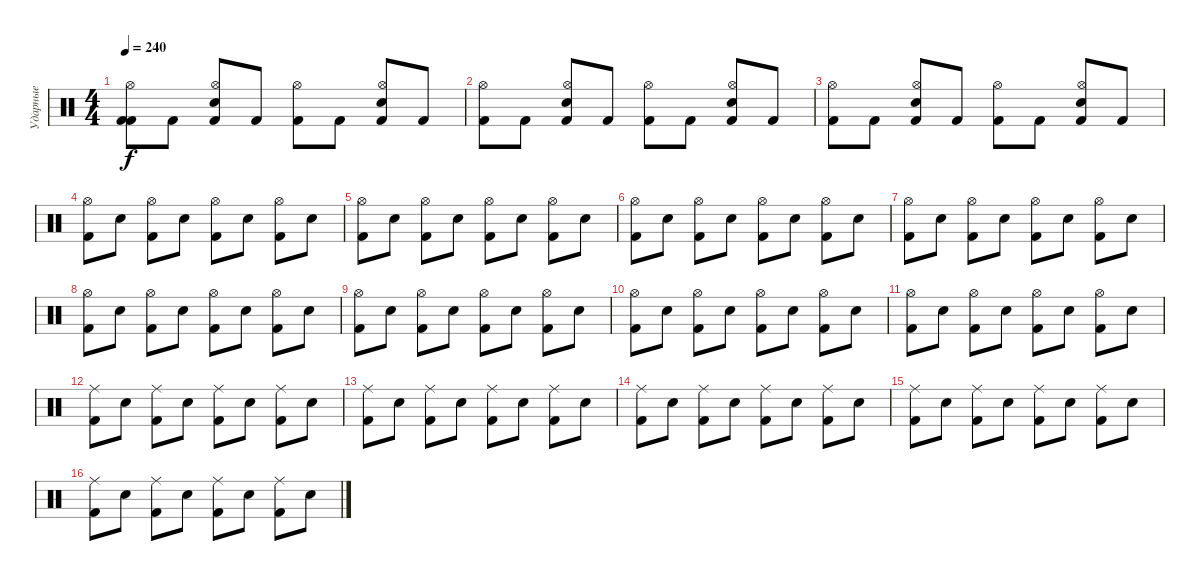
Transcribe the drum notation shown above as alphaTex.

\track ("Ударные" "Ударные") {instrument percussion}
\staff {score}
\articulation defaults
\ts (4 4)
\tempo 240
\clef neutral
\ks c
("Kick (hit) 2" "Hi-Hat (open)" "Kick (hit) 2").8{dy f} "Kick (hit) 2".8 ("Electric Snare (hit)" "Hi-Hat (open)" "Kick (hit) 2").8 "Kick (hit) 2".8 ("Kick (hit) 2" "Hi-Hat (open)").8 "Kick (hit) 2".8 ("Electric Snare (hit)" "Hi-Hat (open)" "Kick (hit) 2").8 "Kick (hit) 2".8 |
("Kick (hit) 2" "Hi-Hat (open)").8 "Kick (hit) 2".8 ("Electric Snare (hit)" "Hi-Hat (open)" "Kick (hit) 2").8 "Kick (hit) 2".8 ("Kick (hit) 2" "Hi-Hat (open)").8 "Kick (hit) 2".8 ("Electric Snare (hit)" "Hi-Hat (open)" "Kick (hit) 2").8 "Kick (hit) 2".8 |
("Kick (hit) 2" "Hi-Hat (open)").8 "Kick (hit) 2".8 ("Electric Snare (hit)" "Hi-Hat (open)" "Kick (hit) 2").8 "Kick (hit) 2".8 ("Kick (hit) 2" "Hi-Hat (open)").8 "Kick (hit) 2".8 ("Electric Snare (hit)" "Hi-Hat (open)" "Kick (hit) 2").8 "Kick (hit) 2".8 |
("Kick (hit) 2" "Hi-Hat (open)").8 "Electric Snare (hit)".8 ("Kick (hit) 2" "Hi-Hat (open)").8 "Electric Snare (hit)".8 ("Kick (hit) 2" "Hi-Hat (open)").8 "Electric Snare (hit)".8 ("Kick (hit) 2" "Hi-Hat (open)").8 "Electric Snare (hit)".8 |
("Kick (hit) 2" "Hi-Hat (open)").8 "Electric Snare (hit)".8 ("Kick (hit) 2" "Hi-Hat (open)").8 "Electric Snare (hit)".8 ("Kick (hit) 2" "Hi-Hat (open)").8 "Electric Snare (hit)".8 ("Kick (hit) 2" "Hi-Hat (open)").8 "Electric Snare (hit)".8 |
("Kick (hit) 2" "Hi-Hat (open)").8 "Electric Snare (hit)".8 ("Kick (hit) 2" "Hi-Hat (open)").8 "Electric Snare (hit)".8 ("Kick (hit) 2" "Hi-Hat (open)").8 "Electric Snare (hit)".8 ("Kick (hit) 2" "Hi-Hat (open)").8 "Electric Snare (hit)".8 |
("Kick (hit) 2" "Hi-Hat (open)").8 "Electric Snare (hit)".8 ("Kick (hit) 2" "Hi-Hat (open)").8 "Electric Snare (hit)".8 ("Kick (hit) 2" "Hi-Hat (open)").8 "Electric Snare (hit)".8 ("Kick (hit) 2" "Hi-Hat (open)").8 "Electric Snare (hit)".8 |
("Kick (hit) 2" "Hi-Hat (open)").8 "Electric Snare (hit)".8 ("Kick (hit) 2" "Hi-Hat (open)").8 "Electric Snare (hit)".8 ("Kick (hit) 2" "Hi-Hat (open)").8 "Electric Snare (hit)".8 ("Kick (hit) 2" "Hi-Hat (open)").8 "Electric Snare (hit)".8 |
("Kick (hit) 2" "Hi-Hat (open)").8 "Electric Snare (hit)".8 ("Kick (hit) 2" "Hi-Hat (open)").8 "Electric Snare (hit)".8 ("Kick (hit) 2" "Hi-Hat (open)").8 "Electric Snare (hit)".8 ("Kick (hit) 2" "Hi-Hat (open)").8 "Electric Snare (hit)".8 |
("Kick (hit) 2" "Hi-Hat (open)").8 "Electric Snare (hit)".8 ("Kick (hit) 2" "Hi-Hat (open)").8 "Electric Snare (hit)".8 ("Kick (hit) 2" "Hi-Hat (open)").8 "Electric Snare (hit)".8 ("Kick (hit) 2" "Hi-Hat (open)").8 "Electric Snare (hit)".8 |
("Kick (hit) 2" "Hi-Hat (open)").8 "Electric Snare (hit)".8 ("Kick (hit) 2" "Hi-Hat (open)").8 "Electric Snare (hit)".8 ("Kick (hit) 2" "Hi-Hat (open)").8 "Electric Snare (hit)".8 ("Kick (hit) 2" "Hi-Hat (open)").8 "Electric Snare (hit)".8 |
("Kick (hit) 2" "Ride (middle)").8 "Electric Snare (hit)".8 ("Kick (hit) 2" "Ride (middle)").8 "Electric Snare (hit)".8 ("Kick (hit) 2" "Ride (middle)").8 "Electric Snare (hit)".8 ("Kick (hit) 2" "Ride (middle)").8 "Electric Snare (hit)".8 |
("Kick (hit) 2" "Ride (middle)").8 "Electric Snare (hit)".8 ("Kick (hit) 2" "Ride (middle)").8 "Electric Snare (hit)".8 ("Kick (hit) 2" "Ride (middle)").8 "Electric Snare (hit)".8 ("Kick (hit) 2" "Ride (middle)").8 "Electric Snare (hit)".8 |
("Kick (hit) 2" "Ride (middle)").8 "Electric Snare (hit)".8 ("Kick (hit) 2" "Ride (middle)").8 "Electric Snare (hit)".8 ("Kick (hit) 2" "Ride (middle)").8 "Electric Snare (hit)".8 ("Kick (hit) 2" "Ride (middle)").8 "Electric Snare (hit)".8 |
("Kick (hit) 2" "Ride (middle)").8 "Electric Snare (hit)".8 ("Kick (hit) 2" "Ride (middle)").8 "Electric Snare (hit)".8 ("Kick (hit) 2" "Ride (middle)").8 "Electric Snare (hit)".8 ("Kick (hit) 2" "Ride (middle)").8 "Electric Snare (hit)".8 |
("Kick (hit) 2" "Ride (middle)").8 "Electric Snare (hit)".8 ("Kick (hit) 2" "Ride (middle)").8 "Electric Snare (hit)".8 ("Kick (hit) 2" "Ride (middle)").8 "Electric Snare (hit)".8 ("Kick (hit) 2" "Ride (middle)").8 "Electric Snare (hit)".8
